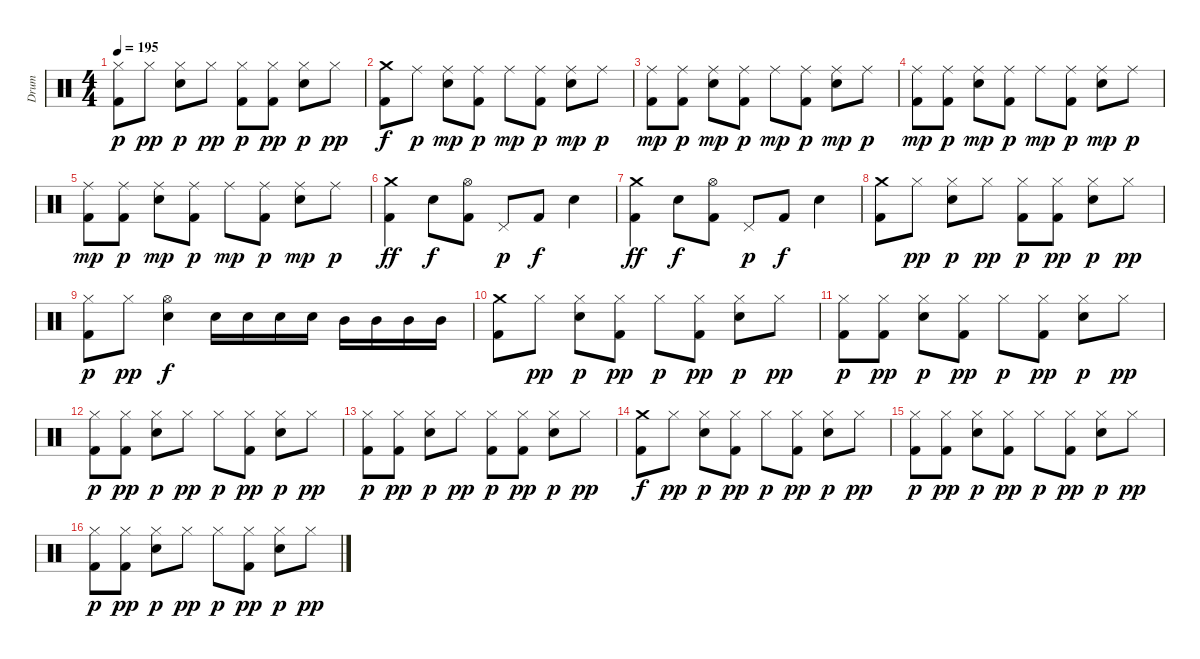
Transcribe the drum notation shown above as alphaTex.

\track ("Drum" "Drum") {instrument percussion}
\staff {score}
\articulation defaults
\ts (4 4)
\tempo 195
\clef neutral
\ks c
("Hi-Hat (closed)" "Kick (hit) 2").8{dy p} "Hi-Hat (closed)".8{dy pp} ("Hi-Hat (closed)" "Electric Snare (hit)").8{dy p} "Hi-Hat (closed)".8{dy pp} ("Hi-Hat (closed)" "Kick (hit) 2").8{dy p} ("Hi-Hat (closed)" "Kick (hit) 2").8{dy pp} ("Hi-Hat (closed)" "Electric Snare (hit)").8{dy p} "Hi-Hat (closed)".8{dy pp} |
("Crash medium (hit)" "Kick (hit) 2").8{dy f} "Ride (middle)".8{dy p} ("Ride (middle)" "Electric Snare (hit)").8{dy mp} ("Ride (middle)" "Kick (hit) 2").8{dy p} "Ride (middle)".8{dy mp} ("Ride (middle)" "Kick (hit) 2").8{dy p} ("Ride (middle)" "Electric Snare (hit)").8{dy mp} "Ride (middle)".8{dy p} |
("Ride (middle)" "Kick (hit) 2").8{dy mp} ("Ride (middle)" "Kick (hit) 2").8{dy p} ("Ride (middle)" "Electric Snare (hit)").8{dy mp} ("Ride (middle)" "Kick (hit) 2").8{dy p} "Ride (middle)".8{dy mp} ("Ride (middle)" "Kick (hit) 2").8{dy p} ("Ride (middle)" "Electric Snare (hit)").8{dy mp} "Ride (middle)".8{dy p} |
("Ride (middle)" "Kick (hit) 2").8{dy mp} ("Ride (middle)" "Kick (hit) 2").8{dy p} ("Ride (middle)" "Electric Snare (hit)").8{dy mp} ("Ride (middle)" "Kick (hit) 2").8{dy p} "Ride (middle)".8{dy mp} ("Ride (middle)" "Kick (hit) 2").8{dy p} ("Ride (middle)" "Electric Snare (hit)").8{dy mp} "Ride (middle)".8{dy p} |
("Ride (middle)" "Kick (hit) 2").8{dy mp} ("Ride (middle)" "Kick (hit) 2").8{dy p} ("Ride (middle)" "Electric Snare (hit)").8{dy mp} ("Ride (middle)" "Kick (hit) 2").8{dy p} "Ride (middle)".8{dy mp} ("Ride (middle)" "Kick (hit) 2").8{dy p} ("Ride (middle)" "Electric Snare (hit)").8{dy mp} "Ride (middle)".8{dy p} |
("Crash medium (hit)" "Kick (hit) 2").4{dy ff} "Electric Snare (hit)".8{dy f} ("Hi-Hat (open)" "Kick (hit) 2").8 "Pedal Hi-Hat (hit)".8{dy p} "Kick (hit) 2".8{dy f} "Electric Snare (hit)".4 |
("Crash medium (hit)" "Kick (hit) 2").4{dy ff} "Electric Snare (hit)".8{dy f} ("Hi-Hat (open)" "Kick (hit) 2").8 "Pedal Hi-Hat (hit)".8{dy p} "Kick (hit) 2".8{dy f} "Electric Snare (hit)".4 |
("Crash medium (hit)" "Kick (hit) 2").8 "Hi-Hat (closed)".8{dy pp} ("Hi-Hat (closed)" "Electric Snare (hit)").8{dy p} "Hi-Hat (closed)".8{dy pp} ("Hi-Hat (closed)" "Kick (hit) 2").8{dy p} ("Hi-Hat (closed)" "Kick (hit) 2").8{dy pp} ("Hi-Hat (closed)" "Electric Snare (hit)").8{dy p} "Hi-Hat (closed)".8{dy pp} |
("Hi-Hat (closed)" "Kick (hit) 2").8{dy p} "Hi-Hat (closed)".8{dy pp} ("Hi-Hat (open)" "Electric Snare (hit)").4{dy f} "Electric Snare (hit)".16 "Electric Snare (hit)".16 "Electric Snare (hit)".16 "Electric Snare (hit)".16 "Mid Tom (hit)".16 "Mid Tom (hit)".16 "Mid Tom (hit)".16 "Mid Tom (hit)".16 |
("Crash medium (hit)" "Kick (hit) 2").8 "Hi-Hat (closed)".8{dy pp} ("Hi-Hat (closed)" "Electric Snare (hit)").8{dy p} ("Hi-Hat (closed)" "Kick (hit) 2").8{dy pp} "Hi-Hat (closed)".8{dy p} ("Hi-Hat (closed)" "Kick (hit) 2").8{dy pp} ("Hi-Hat (closed)" "Electric Snare (hit)").8{dy p} "Hi-Hat (closed)".8{dy pp} |
("Hi-Hat (closed)" "Kick (hit) 2").8{dy p} ("Hi-Hat (closed)" "Kick (hit) 2").8{dy pp} ("Hi-Hat (closed)" "Electric Snare (hit)").8{dy p} ("Hi-Hat (closed)" "Kick (hit) 2").8{dy pp} "Hi-Hat (closed)".8{dy p} ("Hi-Hat (closed)" "Kick (hit) 2").8{dy pp} ("Hi-Hat (closed)" "Electric Snare (hit)").8{dy p} "Hi-Hat (closed)".8{dy pp} |
("Hi-Hat (closed)" "Kick (hit) 2").8{dy p} ("Hi-Hat (closed)" "Kick (hit) 2").8{dy pp} ("Hi-Hat (closed)" "Electric Snare (hit)").8{dy p} "Hi-Hat (closed)".8{dy pp} "Hi-Hat (closed)".8{dy p} ("Hi-Hat (closed)" "Kick (hit) 2").8{dy pp} ("Hi-Hat (closed)" "Electric Snare (hit)").8{dy p} "Hi-Hat (closed)".8{dy pp} |
("Hi-Hat (closed)" "Kick (hit) 2").8{dy p} ("Hi-Hat (closed)" "Kick (hit) 2").8{dy pp} ("Hi-Hat (closed)" "Electric Snare (hit)").8{dy p} "Hi-Hat (closed)".8{dy pp} ("Hi-Hat (closed)" "Kick (hit) 2").8{dy p} ("Hi-Hat (closed)" "Kick (hit) 2").8{dy pp} ("Hi-Hat (closed)" "Electric Snare (hit)").8{dy p} "Hi-Hat (closed)".8{dy pp} |
("Crash medium (hit)" "Kick (hit) 2").8{dy f} "Hi-Hat (closed)".8{dy pp} ("Hi-Hat (closed)" "Electric Snare (hit)").8{dy p} ("Hi-Hat (closed)" "Kick (hit) 2").8{dy pp} "Hi-Hat (closed)".8{dy p} ("Hi-Hat (closed)" "Kick (hit) 2").8{dy pp} ("Hi-Hat (closed)" "Electric Snare (hit)").8{dy p} "Hi-Hat (closed)".8{dy pp} |
("Hi-Hat (closed)" "Kick (hit) 2").8{dy p} ("Hi-Hat (closed)" "Kick (hit) 2").8{dy pp} ("Hi-Hat (closed)" "Electric Snare (hit)").8{dy p} ("Hi-Hat (closed)" "Kick (hit) 2").8{dy pp} "Hi-Hat (closed)".8{dy p} ("Hi-Hat (closed)" "Kick (hit) 2").8{dy pp} ("Hi-Hat (closed)" "Electric Snare (hit)").8{dy p} "Hi-Hat (closed)".8{dy pp} |
("Hi-Hat (closed)" "Kick (hit) 2").8{dy p} ("Hi-Hat (closed)" "Kick (hit) 2").8{dy pp} ("Hi-Hat (closed)" "Electric Snare (hit)").8{dy p} "Hi-Hat (closed)".8{dy pp} "Hi-Hat (closed)".8{dy p} ("Hi-Hat (closed)" "Kick (hit) 2").8{dy pp} ("Hi-Hat (closed)" "Electric Snare (hit)").8{dy p} "Hi-Hat (closed)".8{dy pp}
